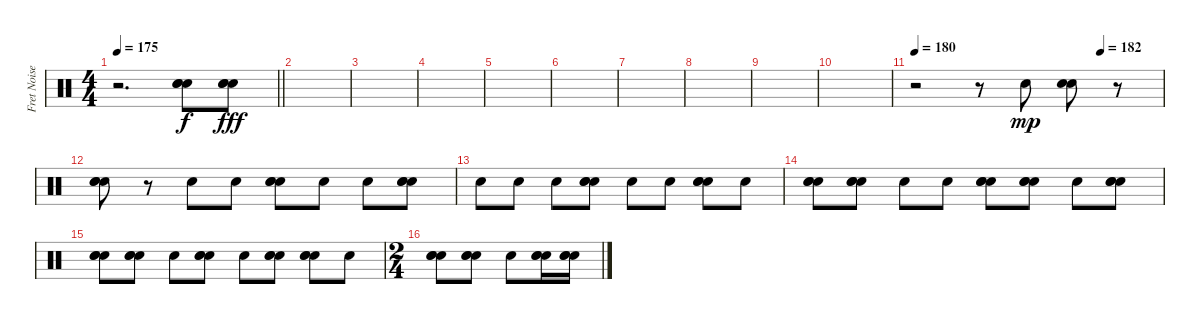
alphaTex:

\track ("Fret Noise / Percussion(corpus)" "Fret Noise") {instrument percussion}
\staff {score}
\articulation defaults
\ts (4 4)
\tempo 175
\clef neutral
\barLineRight lightlight
\ks c
r.2{d dy fff volume 11} ("Snare (hit) 2" "Snare (hit) 2" "Snare (hit) 2").8{dy f} ("Snare (hit) 2" "Snare (hit) 2" "Snare (hit) 2").8{dy fff} |
|
|
|
|
|
|
|
|
|
\tempo 180
\tempo (182 0.75)
r.2 r.8 "Snare (hit) 2".8{dy mp} ("Snare (hit) 2" "Snare (hit) 2").8 r.8 |
("Snare (hit) 2" "Snare (hit) 2" "Snare (hit) 2").8 r.8 "Snare (hit) 2".8 "Snare (hit) 2".8 ("Snare (hit) 2" "Snare (hit) 2" "Snare (hit) 2").8 "Snare (hit) 2".8 "Snare (hit) 2".8 ("Snare (hit) 2" "Snare (hit) 2" "Snare (hit) 2").8 |
"Snare (hit) 2".8 "Snare (hit) 2".8 "Snare (hit) 2".8 ("Snare (hit) 2" "Snare (hit) 2" "Snare (hit) 2").8 "Snare (hit) 2".8 "Snare (hit) 2".8 ("Snare (hit) 2" "Snare (hit) 2" "Snare (hit) 2").8 "Snare (hit) 2".8 |
("Snare (hit) 2" "Snare (hit) 2" "Snare (hit) 2").8 ("Snare (hit) 2" "Snare (hit) 2" "Snare (hit) 2").8 "Snare (hit) 2".8 "Snare (hit) 2".8 ("Snare (hit) 2" "Snare (hit) 2" "Snare (hit) 2").8 ("Snare (hit) 2" "Snare (hit) 2" "Snare (hit) 2").8 "Snare (hit) 2".8 ("Snare (hit) 2" "Snare (hit) 2" "Snare (hit) 2").8 |
("Snare (hit) 2" "Snare (hit) 2" "Snare (hit) 2").8 ("Snare (hit) 2" "Snare (hit) 2" "Snare (hit) 2").8 "Snare (hit) 2".8 ("Snare (hit) 2" "Snare (hit) 2" "Snare (hit) 2").8 "Snare (hit) 2".8 ("Snare (hit) 2" "Snare (hit) 2" "Snare (hit) 2").8 ("Snare (hit) 2" "Snare (hit) 2" "Snare (hit) 2").8 "Snare (hit) 2".8 |
\ts (2 4)
("Snare (hit) 2" "Snare (hit) 2" "Snare (hit) 2").8 ("Snare (hit) 2" "Snare (hit) 2" "Snare (hit) 2").8 "Snare (hit) 2".8 ("Snare (hit) 2" "Snare (hit) 2" "Snare (hit) 2").16 ("Snare (hit) 2" "Snare (hit) 2" "Snare (hit) 2").16
